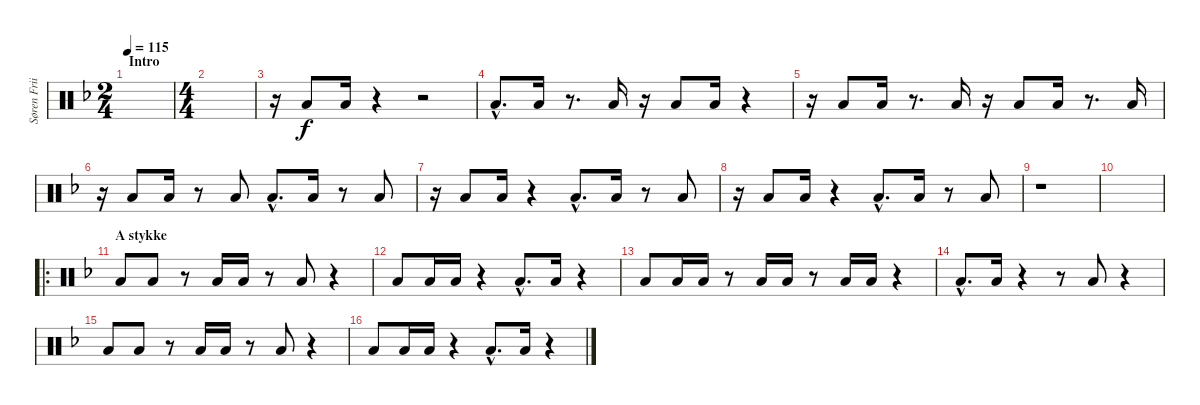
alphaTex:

\track ("Søren Friis (Floor Drum)" "Søren Frii") {instrument percussion}
\staff {score}
\articulation defaults
\ts (2 4)
\section ("" "Intro")
\tempo 115
\clef neutral
\ks f
|
\ts (4 4)
|
r.16 "Low Floor Tom (hit)".8 "Low Floor Tom (hit)".16 r.4 r.2 |
"Low Floor Tom (hit)"{hac}.8{d} "Low Floor Tom (hit)".16 r.8{d} "Low Floor Tom (hit)".16 r.16 "Low Floor Tom (hit)".8 "Low Floor Tom (hit)".16 r.4 |
r.16 "Low Floor Tom (hit)".8 "Low Floor Tom (hit)".16 r.8{d} "Low Floor Tom (hit)".16 r.16 "Low Floor Tom (hit)".8 "Low Floor Tom (hit)".16 r.8{d} "Low Floor Tom (hit)".16 |
r.16 "Low Floor Tom (hit)".8 "Low Floor Tom (hit)".16 r.8 "Low Floor Tom (hit)".8 "Low Floor Tom (hit)"{hac}.8{d} "Low Floor Tom (hit)".16 r.8 "Low Floor Tom (hit)".8 |
r.16 "Low Floor Tom (hit)".8 "Low Floor Tom (hit)".16 r.4 "Low Floor Tom (hit)"{hac}.8{d} "Low Floor Tom (hit)".16 r.8 "Low Floor Tom (hit)".8 |
r.16 "Low Floor Tom (hit)".8 "Low Floor Tom (hit)".16 r.4 "Low Floor Tom (hit)"{hac}.8{d} "Low Floor Tom (hit)".16 r.8 "Low Floor Tom (hit)".8 |
r.1 |
|
\ro
\section ("" "A stykke")
"Low Floor Tom (hit)".8 "Low Floor Tom (hit)".8 r.8 "Low Floor Tom (hit)".16 "Low Floor Tom (hit)".16 r.8 "Low Floor Tom (hit)".8 r.4 |
"Low Floor Tom (hit)".8 "Low Floor Tom (hit)".16 "Low Floor Tom (hit)".16 r.4 "Low Floor Tom (hit)"{hac}.8{d} "Low Floor Tom (hit)".16 r.4 |
"Low Floor Tom (hit)".8 "Low Floor Tom (hit)".16 "Low Floor Tom (hit)".16 r.8 "Low Floor Tom (hit)".16 "Low Floor Tom (hit)".16 r.8 "Low Floor Tom (hit)".16 "Low Floor Tom (hit)".16 r.4 |
"Low Floor Tom (hit)"{hac}.8{d} "Low Floor Tom (hit)".16 r.4 r.8 "Low Floor Tom (hit)".8 r.4 |
"Low Floor Tom (hit)".8 "Low Floor Tom (hit)".8 r.8 "Low Floor Tom (hit)".16 "Low Floor Tom (hit)".16 r.8 "Low Floor Tom (hit)".8 r.4 |
"Low Floor Tom (hit)".8 "Low Floor Tom (hit)".16 "Low Floor Tom (hit)".16 r.4 "Low Floor Tom (hit)"{hac}.8{d} "Low Floor Tom (hit)".16 r.4
